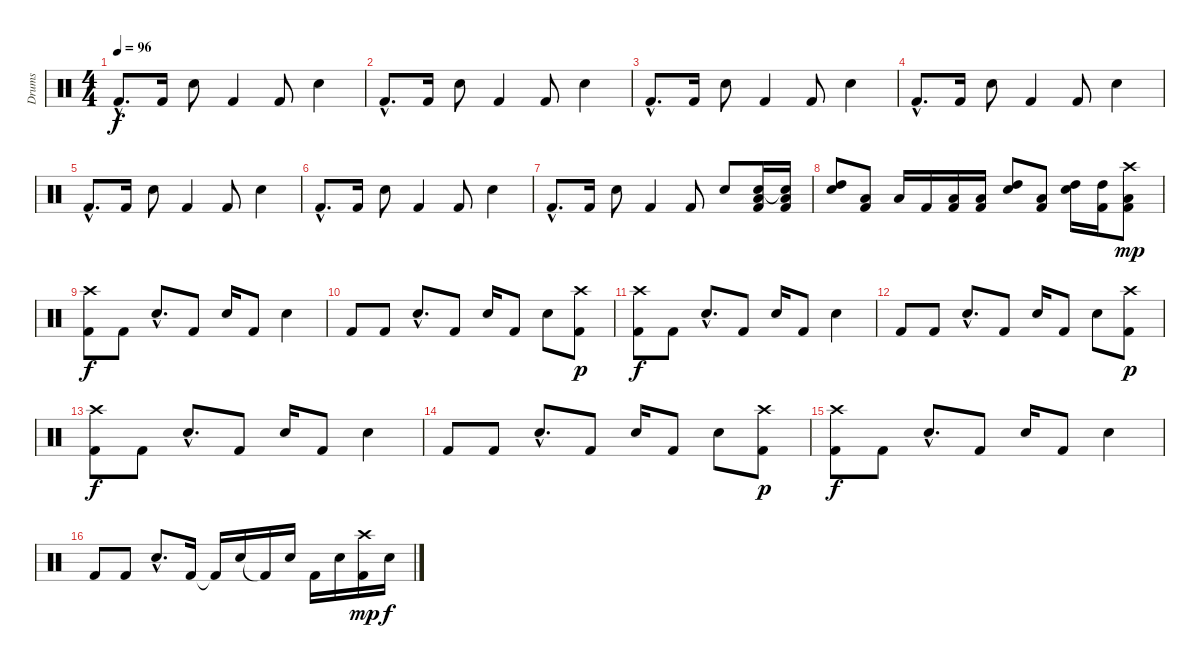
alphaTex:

\track ("Drums" "Drums") {instrument percussion}
\staff {score}
\articulation defaults
\ts (4 4)
\tempo 96
\clef neutral
\ks c "Kick (hit) 2"{hac}.8{d dy f} "Kick (hit) 2".16 "Snare (hit) 2".8 "Kick (hit) 2".4 "Kick (hit) 2".8 "Snare (hit) 2".4
|
"Kick (hit) 2"{hac}.8{d} "Kick (hit) 2".16 "Snare (hit) 2".8 "Kick (hit) 2".4 "Kick (hit) 2".8 "Snare (hit) 2".4 |
"Kick (hit) 2"{hac}.8{d} "Kick (hit) 2".16 "Snare (hit) 2".8 "Kick (hit) 2".4 "Kick (hit) 2".8 "Snare (hit) 2".4 |
"Kick (hit) 2"{hac}.8{d} "Kick (hit) 2".16 "Snare (hit) 2".8 "Kick (hit) 2".4 "Kick (hit) 2".8 "Snare (hit) 2".4 |
"Kick (hit) 2"{hac}.8{d} "Kick (hit) 2".16 "Snare (hit) 2".8 "Kick (hit) 2".4 "Kick (hit) 2".8 "Snare (hit) 2".4 |
"Kick (hit) 2"{hac}.8{d} "Kick (hit) 2".16 "Snare (hit) 2".8 "Kick (hit) 2".4 "Kick (hit) 2".8 "Snare (hit) 2".4 |
"Kick (hit) 2"{hac}.8{d} "Kick (hit) 2".16 "Snare (hit) 2".8 "Kick (hit) 2".4 "Kick (hit) 2".8 "Snare (hit) 2".8 ("Kick (hit) 2" "Low Tom (hit)" "Snare (hit)").16 ("Kick (hit) 2" "Low Tom (hit)" "Snare (hit)"{t}).16 |
("Snare (hit) 2" "High Tom (hit)").8 ("Kick (hit) 2" "Low Tom (hit)").8 "Low Tom (hit)".16 "Kick (hit) 2".16 ("Kick (hit) 2" "Low Tom (hit)").16 ("Kick (hit) 2" "Low Tom (hit)").16 ("Snare (hit) 2" "High Tom (hit)").8 ("Kick (hit) 2" "Low Tom (hit)").8 ("Snare (hit) 2" "High Tom (hit)").16 ("Kick (hit) 2" "High Tom (hit)").16 ("Crash high (hit)" "Kick (hit) 2" "Low Tom (hit)").8{dy mp} |
("Crash high (hit)" "Kick (hit) 2").8{dy f} "Kick (hit) 2".8 "Snare (hit) 2"{hac}.8{d} "Kick (hit) 2".8 "Snare (hit) 2".16 "Kick (hit) 2".8 "Snare (hit) 2".4 |
"Kick (hit) 2".8 "Kick (hit) 2".8 "Snare (hit) 2"{hac}.8{d} "Kick (hit) 2".8 "Snare (hit) 2".16 "Kick (hit) 2".8 "Snare (hit) 2".8 ("Crash high (hit)" "Kick (hit) 2").8{dy p} |
("Crash high (hit)" "Kick (hit) 2").8{dy f} "Kick (hit) 2".8 "Snare (hit) 2"{hac}.8{d} "Kick (hit) 2".8 "Snare (hit) 2".16 "Kick (hit) 2".8 "Snare (hit) 2".4 |
"Kick (hit) 2".8 "Kick (hit) 2".8 "Snare (hit) 2"{hac}.8{d} "Kick (hit) 2".8 "Snare (hit) 2".16 "Kick (hit) 2".8 "Snare (hit) 2".8 ("Crash high (hit)" "Kick (hit) 2").8{dy p} |
("Crash high (hit)" "Kick (hit) 2").8{dy f} "Kick (hit) 2".8 "Snare (hit) 2"{hac}.8{d} "Kick (hit) 2".8 "Snare (hit) 2".16 "Kick (hit) 2".8 "Snare (hit) 2".4 |
"Kick (hit) 2".8 "Kick (hit) 2".8 "Snare (hit) 2"{hac}.8{d} "Kick (hit) 2".8 "Snare (hit) 2".16 "Kick (hit) 2".8 "Snare (hit) 2".8 ("Crash high (hit)" "Kick (hit) 2").8{dy p} |
("Crash high (hit)" "Kick (hit) 2").8{dy f} "Kick (hit) 2".8 "Snare (hit) 2"{hac}.8{d} "Kick (hit) 2".8 "Snare (hit) 2".16 "Kick (hit) 2".8 "Snare (hit) 2".4 |
"Kick (hit) 2".8 "Kick (hit) 2".8 "Snare (hit) 2"{hac}.8{d} "Kick (hit) 2".16 "Kick (hit) 2"{t}.16 "Snare (hit) 2".16 "Kick (hit) 2"{t}.16 "Snare (hit) 2".16 "Kick (hit) 2".16 "Snare (hit) 2".16 ("Crash high (hit)" "Kick (hit) 2").16{dy mp} "Snare (hit) 2".16{dy f}
